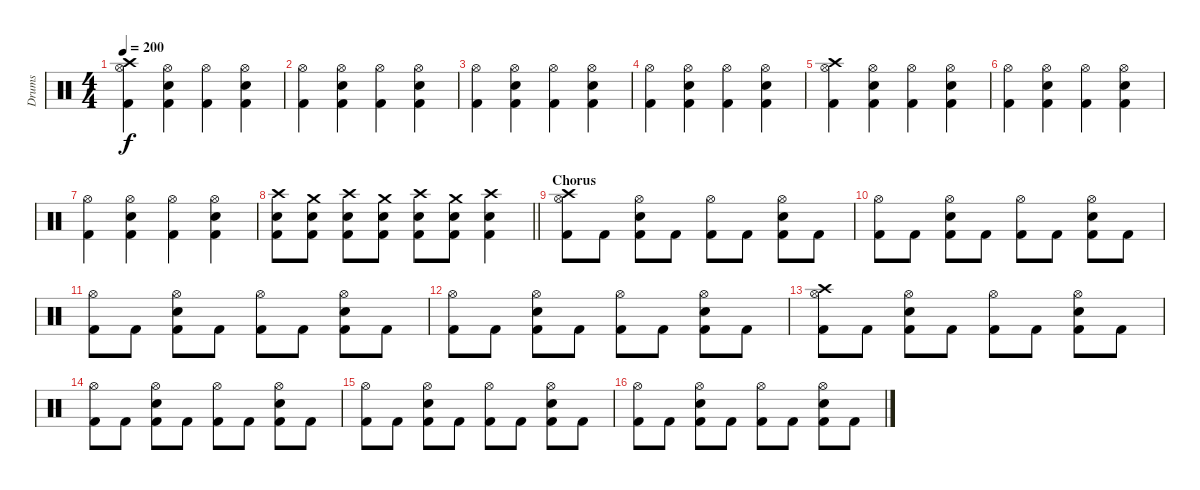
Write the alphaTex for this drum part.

\track ("Drums" "Drums") {instrument percussion}
\staff {score}
\articulation defaults
\ts (4 4)
\tempo 200
\clef neutral
\ks c
("Crash high (hit)" "Hi-Hat (open)" "Kick (hit) 2").4{dy f} ("Hi-Hat (open)" "Snare (hit) 2" "Kick (hit) 2").4 ("Hi-Hat (open)" "Kick (hit) 2").4 ("Hi-Hat (open)" "Snare (hit) 2" "Kick (hit) 2").4 |
("Hi-Hat (open)" "Kick (hit) 2").4 ("Hi-Hat (open)" "Snare (hit) 2" "Kick (hit) 2").4 ("Hi-Hat (open)" "Kick (hit) 2").4 ("Hi-Hat (open)" "Snare (hit) 2" "Kick (hit) 2").4 |
("Hi-Hat (open)" "Kick (hit) 2").4 ("Hi-Hat (open)" "Snare (hit) 2" "Kick (hit) 2").4 ("Hi-Hat (open)" "Kick (hit) 2").4 ("Hi-Hat (open)" "Snare (hit) 2" "Kick (hit) 2").4 |
("Hi-Hat (open)" "Kick (hit) 2").4 ("Hi-Hat (open)" "Snare (hit) 2" "Kick (hit) 2").4 ("Hi-Hat (open)" "Kick (hit) 2").4 ("Hi-Hat (open)" "Snare (hit) 2" "Kick (hit) 2").4 |
("Crash high (hit)" "Hi-Hat (open)" "Kick (hit) 2").4 ("Hi-Hat (open)" "Snare (hit) 2" "Kick (hit) 2").4 ("Hi-Hat (open)" "Kick (hit) 2").4 ("Hi-Hat (open)" "Snare (hit) 2" "Kick (hit) 2").4 |
("Hi-Hat (open)" "Kick (hit) 2").4 ("Hi-Hat (open)" "Snare (hit) 2" "Kick (hit) 2").4 ("Hi-Hat (open)" "Kick (hit) 2").4 ("Hi-Hat (open)" "Snare (hit) 2" "Kick (hit) 2").4 |
("Hi-Hat (open)" "Kick (hit) 2").4 ("Hi-Hat (open)" "Snare (hit) 2" "Kick (hit) 2").4 ("Hi-Hat (open)" "Kick (hit) 2").4 ("Hi-Hat (open)" "Snare (hit) 2" "Kick (hit) 2").4 |
\barLineRight lightlight
("Crash high (hit)" "Snare (hit) 2" "Kick (hit) 2").8 ("Crash medium (hit)" "Snare (hit) 2" "Kick (hit) 2").8 ("Crash high (hit)" "Snare (hit) 2" "Kick (hit) 2").8 ("Crash medium (hit)" "Snare (hit) 2" "Kick (hit) 2").8 ("Crash high (hit)" "Snare (hit) 2" "Kick (hit) 2").8 ("Crash medium (hit)" "Snare (hit) 2" "Kick (hit) 2").8 ("Crash high (hit)" "Snare (hit) 2" "Kick (hit) 2").4 |
\section ("" "Chorus")
("Crash high (hit)" "Hi-Hat (open)" "Kick (hit) 2").8 "Kick (hit) 2".8 ("Hi-Hat (open)" "Snare (hit) 2" "Kick (hit) 2").8 "Kick (hit) 2".8 ("Hi-Hat (open)" "Kick (hit) 2").8 "Kick (hit) 2".8 ("Hi-Hat (open)" "Snare (hit) 2" "Kick (hit) 2").8 "Kick (hit) 2".8 |
("Hi-Hat (open)" "Kick (hit) 2").8 "Kick (hit) 2".8 ("Hi-Hat (open)" "Snare (hit) 2" "Kick (hit) 2").8 "Kick (hit) 2".8 ("Hi-Hat (open)" "Kick (hit) 2").8 "Kick (hit) 2".8 ("Hi-Hat (open)" "Snare (hit) 2" "Kick (hit) 2").8 "Kick (hit) 2".8 |
("Hi-Hat (open)" "Kick (hit) 2").8 "Kick (hit) 2".8 ("Hi-Hat (open)" "Snare (hit) 2" "Kick (hit) 2").8 "Kick (hit) 2".8 ("Hi-Hat (open)" "Kick (hit) 2").8 "Kick (hit) 2".8 ("Hi-Hat (open)" "Snare (hit) 2" "Kick (hit) 2").8 "Kick (hit) 2".8 |
("Hi-Hat (open)" "Kick (hit) 2").8 "Kick (hit) 2".8 ("Hi-Hat (open)" "Snare (hit) 2" "Kick (hit) 2").8 "Kick (hit) 2".8 ("Hi-Hat (open)" "Kick (hit) 2").8 "Kick (hit) 2".8 ("Hi-Hat (open)" "Snare (hit) 2" "Kick (hit) 2").8 "Kick (hit) 2".8 |
("Crash high (hit)" "Hi-Hat (open)" "Kick (hit) 2").8 "Kick (hit) 2".8 ("Hi-Hat (open)" "Snare (hit) 2" "Kick (hit) 2").8 "Kick (hit) 2".8 ("Hi-Hat (open)" "Kick (hit) 2").8 "Kick (hit) 2".8 ("Hi-Hat (open)" "Snare (hit) 2" "Kick (hit) 2").8 "Kick (hit) 2".8 |
("Hi-Hat (open)" "Kick (hit) 2").8 "Kick (hit) 2".8 ("Hi-Hat (open)" "Snare (hit) 2" "Kick (hit) 2").8 "Kick (hit) 2".8 ("Hi-Hat (open)" "Kick (hit) 2").8 "Kick (hit) 2".8 ("Hi-Hat (open)" "Snare (hit) 2" "Kick (hit) 2").8 "Kick (hit) 2".8 |
("Hi-Hat (open)" "Kick (hit) 2").8 "Kick (hit) 2".8 ("Hi-Hat (open)" "Snare (hit) 2" "Kick (hit) 2").8 "Kick (hit) 2".8 ("Hi-Hat (open)" "Kick (hit) 2").8 "Kick (hit) 2".8 ("Hi-Hat (open)" "Snare (hit) 2" "Kick (hit) 2").8 "Kick (hit) 2".8 |
("Hi-Hat (open)" "Kick (hit) 2").8 "Kick (hit) 2".8 ("Hi-Hat (open)" "Snare (hit) 2" "Kick (hit) 2").8 "Kick (hit) 2".8 ("Hi-Hat (open)" "Kick (hit) 2").8 "Kick (hit) 2".8 ("Hi-Hat (open)" "Snare (hit) 2" "Kick (hit) 2").8 "Kick (hit) 2".8
